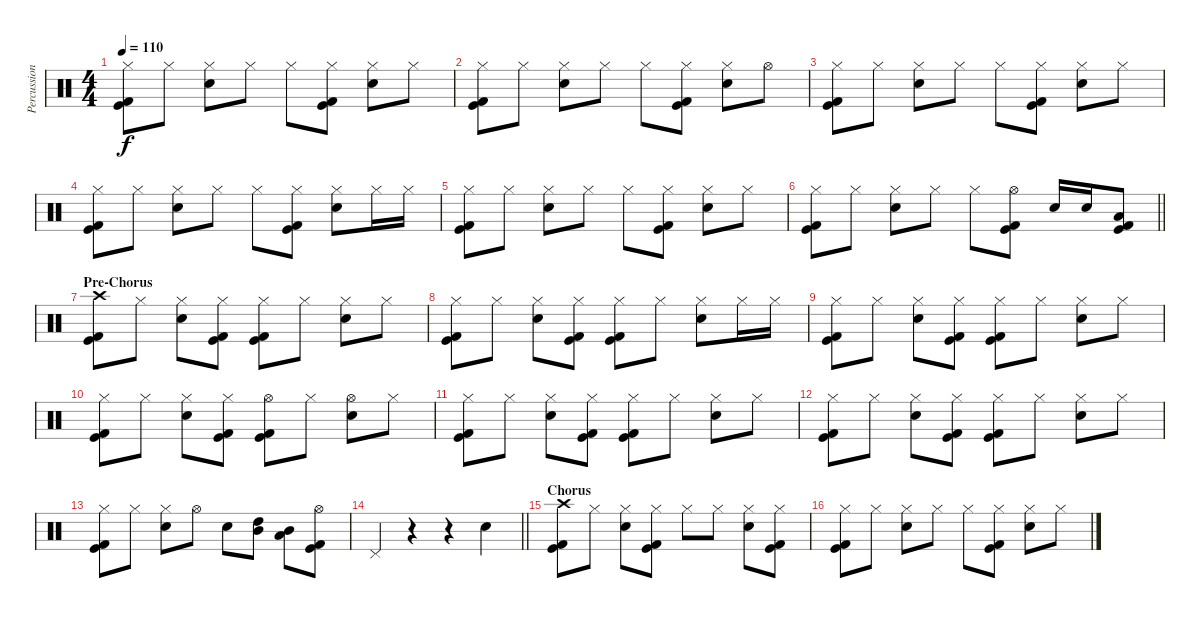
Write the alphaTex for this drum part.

\track ("Percussion" "Percussion") {instrument percussion}
\staff {score}
\articulation defaults
\ts (4 4)
\tempo 110
\clef neutral
\ks c
("Hi-Hat (closed)" "Kick (hit)" "Kick (hit) 2").8{dy f} "Hi-Hat (closed)".8 ("Hi-Hat (closed)" "Snare (hit) 2").8 "Hi-Hat (closed)".8 "Hi-Hat (closed)".8 ("Hi-Hat (closed)" "Kick (hit)" "Kick (hit) 2").8 ("Hi-Hat (closed)" "Snare (hit) 2").8 "Hi-Hat (closed)".8 |
("Hi-Hat (closed)" "Kick (hit)" "Kick (hit) 2").8 "Hi-Hat (closed)".8 ("Hi-Hat (closed)" "Snare (hit) 2").8 "Hi-Hat (closed)".8 "Hi-Hat (closed)".8 ("Hi-Hat (closed)" "Kick (hit)" "Kick (hit) 2").8 ("Hi-Hat (closed)" "Snare (hit) 2").8 "Hi-Hat (open)".8 |
("Hi-Hat (closed)" "Kick (hit)" "Kick (hit) 2").8 "Hi-Hat (closed)".8 ("Hi-Hat (closed)" "Snare (hit) 2").8 "Hi-Hat (closed)".8 "Hi-Hat (closed)".8 ("Hi-Hat (closed)" "Kick (hit)" "Kick (hit) 2").8 ("Hi-Hat (closed)" "Snare (hit) 2").8 "Hi-Hat (closed)".8 |
("Hi-Hat (closed)" "Kick (hit)" "Kick (hit) 2").8 "Hi-Hat (closed)".8 ("Hi-Hat (closed)" "Snare (hit) 2").8 "Hi-Hat (closed)".8 "Hi-Hat (closed)".8 ("Hi-Hat (closed)" "Kick (hit)" "Kick (hit) 2").8 ("Hi-Hat (closed)" "Snare (hit) 2").8 "Hi-Hat (closed)".16 "Hi-Hat (closed)".16 |
("Hi-Hat (closed)" "Kick (hit)" "Kick (hit) 2").8 "Hi-Hat (closed)".8 ("Hi-Hat (closed)" "Snare (hit) 2").8 "Hi-Hat (closed)".8 "Hi-Hat (closed)".8 ("Hi-Hat (closed)" "Kick (hit)" "Kick (hit) 2").8 ("Hi-Hat (closed)" "Snare (hit) 2").8 "Hi-Hat (closed)".8 |
\barLineRight lightlight
("Hi-Hat (closed)" "Kick (hit)" "Kick (hit) 2").8 "Hi-Hat (closed)".8 ("Hi-Hat (closed)" "Snare (hit) 2").8 "Hi-Hat (closed)".8 "Hi-Hat (closed)".8 ("Hi-Hat (open)" "Kick (hit)" "Kick (hit) 2").8 "Snare (hit) 2".16 "Snare (hit) 2".16 ("Low Tom (hit)" "Kick (hit)" "Kick (hit) 2").8 |
\section ("" "Pre-Chorus")
("Crash high (hit)" "Kick (hit)" "Kick (hit) 2").8 "Hi-Hat (closed)".8 ("Hi-Hat (closed)" "Snare (hit) 2").8 ("Hi-Hat (closed)" "Kick (hit)" "Kick (hit) 2").8 ("Hi-Hat (closed)" "Kick (hit)" "Kick (hit) 2").8 "Hi-Hat (closed)".8 ("Hi-Hat (closed)" "Snare (hit) 2").8 "Hi-Hat (closed)".8 |
("Hi-Hat (closed)" "Kick (hit)" "Kick (hit) 2").8 "Hi-Hat (closed)".8 ("Hi-Hat (closed)" "Snare (hit) 2").8 ("Hi-Hat (closed)" "Kick (hit)" "Kick (hit) 2").8 ("Hi-Hat (closed)" "Kick (hit)" "Kick (hit) 2").8 "Hi-Hat (closed)".8 ("Hi-Hat (closed)" "Snare (hit) 2").8 "Hi-Hat (closed)".16 "Hi-Hat (closed)".16 |
("Hi-Hat (closed)" "Kick (hit)" "Kick (hit) 2").8 "Hi-Hat (closed)".8 ("Hi-Hat (closed)" "Snare (hit) 2").8 ("Hi-Hat (closed)" "Kick (hit)" "Kick (hit) 2").8 ("Hi-Hat (closed)" "Kick (hit)" "Kick (hit) 2").8 "Hi-Hat (closed)".8 ("Hi-Hat (closed)" "Snare (hit) 2").8 "Hi-Hat (closed)".8 |
("Hi-Hat (closed)" "Kick (hit)" "Kick (hit) 2").8 "Hi-Hat (closed)".8 ("Hi-Hat (closed)" "Snare (hit) 2").8 ("Hi-Hat (closed)" "Kick (hit)" "Kick (hit) 2").8 ("Hi-Hat (open)" "Kick (hit)" "Kick (hit) 2").8 "Hi-Hat (closed)".8 ("Hi-Hat (open)" "Snare (hit) 2").8 "Hi-Hat (closed)".8 |
("Hi-Hat (closed)" "Kick (hit)" "Kick (hit) 2").8 "Hi-Hat (closed)".8 ("Hi-Hat (closed)" "Snare (hit) 2").8 ("Hi-Hat (closed)" "Kick (hit)" "Kick (hit) 2").8 ("Hi-Hat (closed)" "Kick (hit)" "Kick (hit) 2").8 "Hi-Hat (closed)".8 ("Hi-Hat (closed)" "Snare (hit) 2").8 "Hi-Hat (closed)".8 |
("Hi-Hat (closed)" "Kick (hit)" "Kick (hit) 2").8 "Hi-Hat (closed)".8 ("Hi-Hat (closed)" "Snare (hit) 2").8 ("Hi-Hat (closed)" "Kick (hit)" "Kick (hit) 2").8 ("Hi-Hat (closed)" "Kick (hit)" "Kick (hit) 2").8 "Hi-Hat (closed)".8 ("Hi-Hat (closed)" "Snare (hit) 2").8 "Hi-Hat (closed)".8 |
("Hi-Hat (closed)" "Kick (hit)" "Kick (hit) 2").8 "Hi-Hat (closed)".8 ("Hi-Hat (closed)" "Snare (hit) 2").8 "Hi-Hat (open)".8 "Snare (hit) 2".8 ("High Tom (hit)" "Mid Tom (hit)").8 ("Mid Tom (hit)" "Low Tom (hit)").8 ("Hi-Hat (open)" "Kick (hit)" "Kick (hit) 2").8 |
\barLineRight lightlight "Pedal Hi-Hat (hit)".4
r.4 r.4 "Snare (hit) 2".4 |
\section ("" "Chorus")
("Crash high (hit)" "Kick (hit)" "Kick (hit) 2").8 "Hi-Hat (closed)".8 ("Hi-Hat (closed)" "Snare (hit) 2").8 ("Hi-Hat (closed)" "Kick (hit)" "Kick (hit) 2").8 "Hi-Hat (closed)".8 "Hi-Hat (closed)".8 ("Hi-Hat (closed)" "Snare (hit) 2").8 ("Hi-Hat (closed)" "Kick (hit)" "Kick (hit) 2").8 |
("Hi-Hat (closed)" "Kick (hit)" "Kick (hit) 2").8 "Hi-Hat (closed)".8 ("Hi-Hat (closed)" "Snare (hit) 2").8 "Hi-Hat (closed)".8 "Hi-Hat (closed)".8 ("Hi-Hat (closed)" "Kick (hit)" "Kick (hit) 2").8 ("Hi-Hat (closed)" "Snare (hit) 2").8 "Hi-Hat (closed)".8
